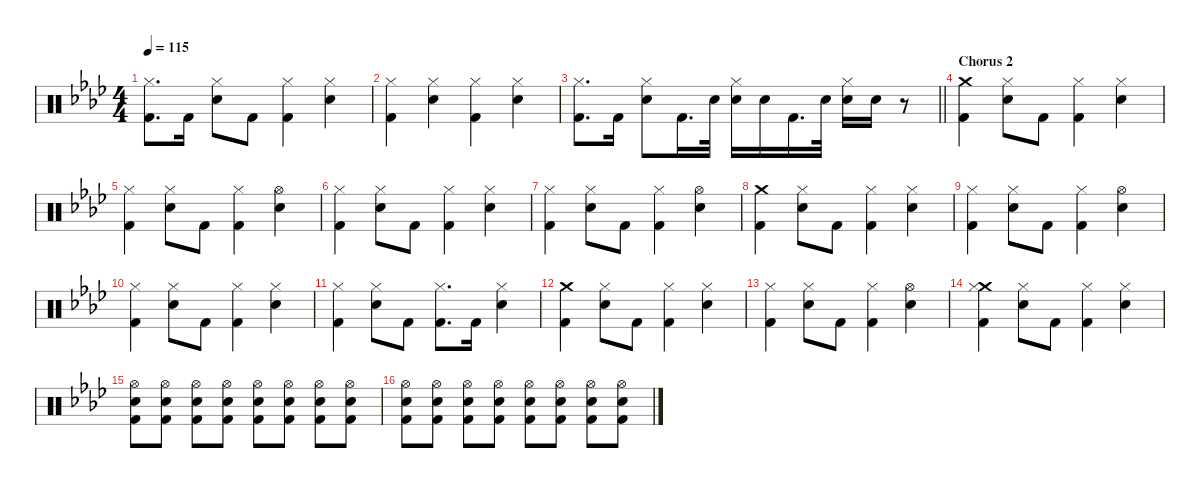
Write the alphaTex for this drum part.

\defaultSystemsLayout 4
\hideDynamics
\bracketExtendMode nobrackets
\singleTrackTrackNamePolicy hidden
\multiTrackTrackNamePolicy hidden
\firstSystemTrackNameMode fullname
\firstSystemTrackNameOrientation horizontal
\otherSystemsTrackNameOrientation horizontal
\track ("Drums" "drm.") {instrument percussion}
\staff {score}
\articulation defaults
\ts (4 4)
\tempo 115
\clef neutral
\ks ab
("Hi-Hat (closed)"{acc forcenatural} "Kick (hit) 2"{acc forcenatural}).8{d dy f beam Down} "Kick (hit) 2"{acc forcenatural}.16{beam Down} ("Hi-Hat (closed)"{acc forcenatural} "Snare (hit) 2"{acc forcenatural}).8{beam Down} "Kick (hit) 2"{acc forcenatural}.8{beam Down} ("Hi-Hat (closed)"{acc forcenatural} "Kick (hit) 2"{acc forcenatural}).4{beam Down} ("Hi-Hat (closed)"{acc forcenatural} "Snare (hit) 2"{acc forcenatural}).4{beam Down} |
("Hi-Hat (closed)"{acc forcenatural} "Kick (hit) 2"{acc forcenatural}).4{beam Down} ("Hi-Hat (closed)"{acc forcenatural} "Snare (hit) 2"{acc forcenatural}).4{beam Down} ("Hi-Hat (closed)"{acc forcenatural} "Kick (hit) 2"{acc forcenatural}).4{beam Down} ("Hi-Hat (closed)"{acc forcenatural} "Snare (hit) 2"{acc forcenatural}).4{beam Down} |
\barLineRight lightlight
("Hi-Hat (closed)"{acc forcenatural} "Kick (hit) 2"{acc forcenatural}).8{d beam Down} "Kick (hit) 2"{acc forcenatural}.16{beam Down} ("Hi-Hat (closed)"{acc forcenatural} "Snare (hit) 2"{acc forcenatural}).8{beam Down} "Kick (hit) 2"{acc forcenatural}.16{d beam Down} "Snare (hit) 2"{acc forcenatural}.32{dy pp beam Down} ("Hi-Hat (closed)"{acc forcenatural} "Snare (hit) 2"{acc forcenatural}).16{dy f beam Down} "Snare (hit) 2"{acc forcenatural}.16{beam Down} "Kick (hit) 2"{acc forcenatural}.16{d beam Down} "Snare (hit) 2"{acc forcenatural}.32{dy pp beam Down} ("Hi-Hat (closed)"{acc forcenatural} "Snare (hit) 2"{acc forcenatural}).16{dy f beam Down} "Snare (hit) 2"{acc forcenatural}.16{beam Down} r.8{beam Down} |
\section ("" "Chorus 2")
("Crash medium (hit)"{acc forcenatural} "Kick (hit) 2"{acc forcenatural}).4{beam Down} ("Hi-Hat (closed)"{acc forcenatural} "Snare (hit) 2"{acc forcenatural}).8{beam Down} "Kick (hit) 2"{acc forcenatural}.8{beam Down} ("Hi-Hat (closed)"{acc forcenatural} "Kick (hit) 2"{acc forcenatural}).4{beam Down} ("Hi-Hat (closed)"{acc forcenatural} "Snare (hit) 2"{acc forcenatural}).4{beam Down} |
("Hi-Hat (closed)"{acc forcenatural} "Kick (hit) 2"{acc forcenatural}).4{beam Down} ("Hi-Hat (closed)"{acc forcenatural} "Snare (hit) 2"{acc forcenatural}).8{beam Down} "Kick (hit) 2"{acc forcenatural}.8{beam Down} ("Hi-Hat (closed)"{acc forcenatural} "Kick (hit) 2"{acc forcenatural}).4{beam Down} ("Hi-Hat (open)"{acc forcenatural} "Snare (hit) 2"{acc forcenatural}).4{dy fff beam Down} |
("Hi-Hat (closed)"{acc forcenatural} "Kick (hit) 2"{acc forcenatural}).4{dy f beam Down} ("Hi-Hat (closed)"{acc forcenatural} "Snare (hit) 2"{acc forcenatural}).8{beam Down} "Kick (hit) 2"{acc forcenatural}.8{beam Down} ("Hi-Hat (closed)"{acc forcenatural} "Kick (hit) 2"{acc forcenatural}).4{beam Down} ("Hi-Hat (closed)"{acc forcenatural} "Snare (hit) 2"{acc forcenatural}).4{beam Down} |
("Hi-Hat (closed)"{acc forcenatural} "Kick (hit) 2"{acc forcenatural}).4{beam Down} ("Hi-Hat (closed)"{acc forcenatural} "Snare (hit) 2"{acc forcenatural}).8{beam Down} "Kick (hit) 2"{acc forcenatural}.8{beam Down} ("Hi-Hat (closed)"{acc forcenatural} "Kick (hit) 2"{acc forcenatural}).4{beam Down} ("Hi-Hat (open)"{acc forcenatural} "Snare (hit) 2"{acc forcenatural}).4{dy fff beam Down} |
("Crash medium (hit)"{acc forcenatural} "Kick (hit) 2"{acc forcenatural}).4{dy f beam Down} ("Hi-Hat (closed)"{acc forcenatural} "Snare (hit) 2"{acc forcenatural}).8{beam Down} "Kick (hit) 2"{acc forcenatural}.8{beam Down} ("Hi-Hat (closed)"{acc forcenatural} "Kick (hit) 2"{acc forcenatural}).4{beam Down} ("Hi-Hat (closed)"{acc forcenatural} "Snare (hit) 2"{acc forcenatural}).4{beam Down} |
("Hi-Hat (closed)"{acc forcenatural} "Kick (hit) 2"{acc forcenatural}).4{beam Down} ("Hi-Hat (closed)"{acc forcenatural} "Snare (hit) 2"{acc forcenatural}).8{beam Down} "Kick (hit) 2"{acc forcenatural}.8{beam Down} ("Hi-Hat (closed)"{acc forcenatural} "Kick (hit) 2"{acc forcenatural}).4{beam Down} ("Hi-Hat (open)"{acc forcenatural} "Snare (hit) 2"{acc forcenatural}).4{dy fff beam Down} |
("Hi-Hat (closed)"{acc forcenatural} "Kick (hit) 2"{acc forcenatural}).4{dy f beam Down} ("Hi-Hat (closed)"{acc forcenatural} "Snare (hit) 2"{acc forcenatural}).8{beam Down} "Kick (hit) 2"{acc forcenatural}.8{beam Down} ("Hi-Hat (closed)"{acc forcenatural} "Kick (hit) 2"{acc forcenatural}).4{beam Down} ("Hi-Hat (closed)"{acc forcenatural} "Snare (hit) 2"{acc forcenatural}).4{beam Down} |
("Hi-Hat (closed)"{acc forcenatural} "Kick (hit) 2"{acc forcenatural}).4{beam Down} ("Hi-Hat (closed)"{acc forcenatural} "Snare (hit) 2"{acc forcenatural}).8{beam Down} "Kick (hit) 2"{acc forcenatural}.8{beam Down} ("Hi-Hat (closed)"{acc forcenatural} "Kick (hit) 2"{acc forcenatural}).8{d beam Down} "Kick (hit) 2"{acc forcenatural}.16{beam Down} ("Hi-Hat (closed)"{acc forcenatural} "Snare (hit) 2"{acc forcenatural}).4{beam Down} |
("Crash medium (hit)"{acc forcenatural} "Kick (hit) 2"{acc forcenatural}).4{beam Down} ("Hi-Hat (closed)"{acc forcenatural} "Snare (hit) 2"{acc forcenatural}).8{beam Down} "Kick (hit) 2"{acc forcenatural}.8{beam Down} ("Hi-Hat (closed)"{acc forcenatural} "Kick (hit) 2"{acc forcenatural}).4{beam Down} ("Hi-Hat (closed)"{acc forcenatural} "Snare (hit) 2"{acc forcenatural}).4{beam Down} |
("Hi-Hat (closed)"{acc forcenatural} "Kick (hit) 2"{acc forcenatural}).4{beam Down} ("Hi-Hat (closed)"{acc forcenatural} "Snare (hit) 2"{acc forcenatural}).8{beam Down} "Kick (hit) 2"{acc forcenatural}.8{beam Down} ("Hi-Hat (closed)"{acc forcenatural} "Kick (hit) 2"{acc forcenatural}).4{beam Down} ("Hi-Hat (open)"{acc forcenatural} "Snare (hit) 2"{acc forcenatural}).4{dy fff beam Down} |
("Crash medium (hit)"{acc forcenatural} "Hi-Hat (closed)"{acc forcenatural} "Kick (hit) 2"{acc forcenatural}).4{dy f beam Down} ("Hi-Hat (closed)"{acc forcenatural} "Snare (hit) 2"{acc forcenatural}).8{beam Down} "Kick (hit) 2"{acc forcenatural}.8{beam Down} ("Hi-Hat (closed)"{acc forcenatural} "Kick (hit) 2"{acc forcenatural}).4{beam Down} ("Hi-Hat (closed)"{acc forcenatural} "Snare (hit) 2"{acc forcenatural}).4{dy fff beam Down} |
("Hi-Hat (open)"{acc forcenatural} "Snare (hit) 2"{acc forcenatural} "Kick (hit) 2"{acc forcenatural}).8{dy mp beam Down} ("Hi-Hat (open)"{acc forcenatural} "Snare (hit) 2"{acc forcenatural} "Kick (hit) 2"{acc forcenatural}).8{beam Down} ("Hi-Hat (open)"{acc forcenatural} "Snare (hit) 2"{acc forcenatural} "Kick (hit) 2"{acc forcenatural}).8{beam Down} ("Hi-Hat (open)"{acc forcenatural} "Snare (hit) 2"{acc forcenatural} "Kick (hit) 2"{acc forcenatural}).8{beam Down} ("Hi-Hat (open)"{acc forcenatural} "Snare (hit) 2"{acc forcenatural} "Kick (hit) 2"{acc forcenatural}).8{beam Down} ("Hi-Hat (open)"{acc forcenatural} "Snare (hit) 2"{acc forcenatural} "Kick (hit) 2"{acc forcenatural}).8{beam Down} ("Hi-Hat (open)"{acc forcenatural} "Snare (hit) 2"{acc forcenatural} "Kick (hit) 2"{acc forcenatural}).8{beam Down} ("Hi-Hat (open)"{acc forcenatural} "Snare (hit) 2"{acc forcenatural} "Kick (hit) 2"{acc forcenatural}).8{beam Down} |
("Hi-Hat (open)"{acc forcenatural} "Snare (hit) 2"{acc forcenatural} "Kick (hit) 2"{acc forcenatural}).8{beam Down} ("Hi-Hat (open)"{acc forcenatural} "Snare (hit) 2"{acc forcenatural} "Kick (hit) 2"{acc forcenatural}).8{beam Down} ("Hi-Hat (open)"{acc forcenatural} "Snare (hit) 2"{acc forcenatural} "Kick (hit) 2"{acc forcenatural}).8{beam Down} ("Hi-Hat (open)"{acc forcenatural} "Snare (hit) 2"{acc forcenatural} "Kick (hit) 2"{acc forcenatural}).8{beam Down} ("Hi-Hat (open)"{acc forcenatural} "Snare (hit) 2"{acc forcenatural} "Kick (hit) 2"{acc forcenatural}).8{beam Down} ("Hi-Hat (open)"{acc forcenatural} "Snare (hit) 2"{acc forcenatural} "Kick (hit) 2"{acc forcenatural}).8{beam Down} ("Hi-Hat (open)"{acc forcenatural} "Snare (hit) 2"{acc forcenatural} "Kick (hit) 2"{acc forcenatural}).8{beam Down} ("Hi-Hat (open)"{acc forcenatural} "Snare (hit) 2"{acc forcenatural} "Kick (hit) 2"{acc forcenatural}).8{beam Down}
